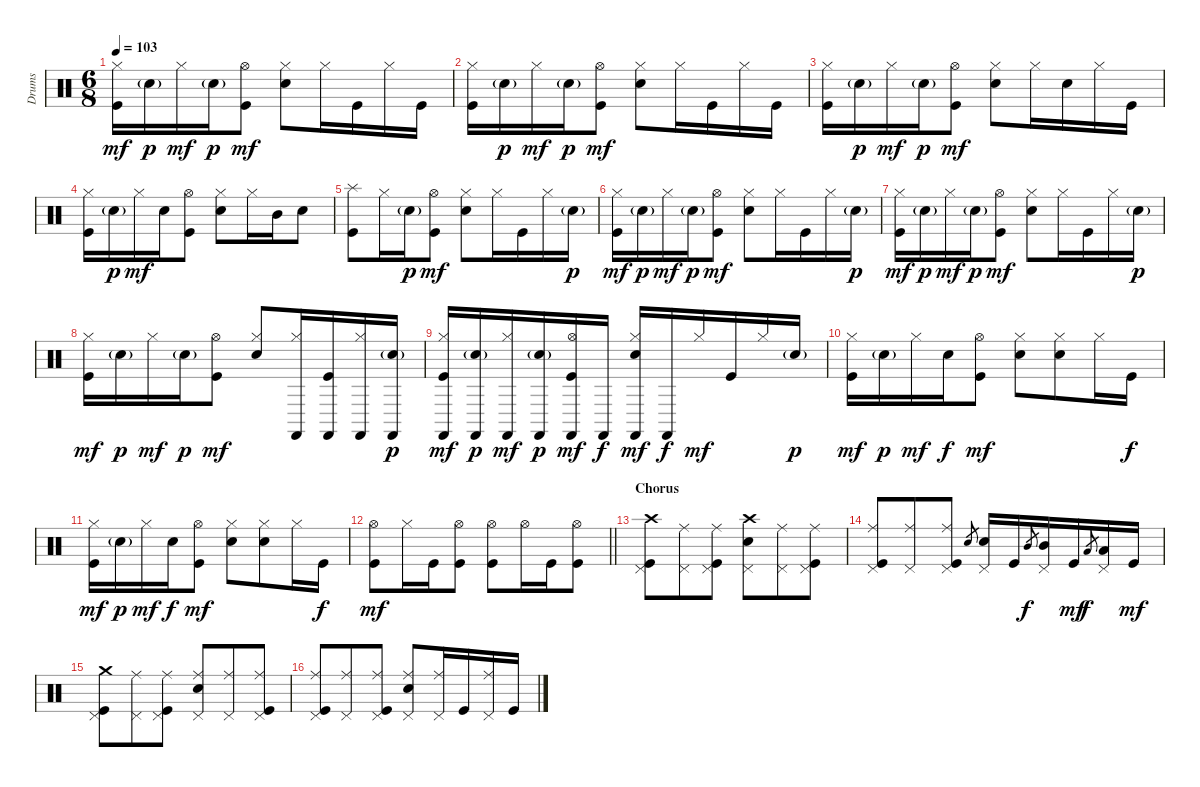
\track ("Drums" "Drums") {instrument percussion}
\staff {score}
\articulation defaults
\ts (6 8)
\tempo 103
\clef neutral
\ks c
("Hi-Hat (closed)" "Kick (hit)").16{dy mf} "Snare (hit) 2"{g}.16{dy p} "Hi-Hat (closed)".16{dy mf} "Snare (hit) 2"{g}.16{dy p} ("Hi-Hat (open)" "Kick (hit)").8{dy mf} ("Hi-Hat (closed)" "Snare (hit) 2").8 "Hi-Hat (closed)".16 "Kick (hit)".16 "Hi-Hat (closed)".16 "Kick (hit)".16 |
("Hi-Hat (closed)" "Kick (hit)").16 "Snare (hit) 2"{g}.16{dy p} "Hi-Hat (closed)".16{dy mf} "Snare (hit) 2"{g}.16{dy p} ("Hi-Hat (open)" "Kick (hit)").8{dy mf} ("Hi-Hat (closed)" "Snare (hit) 2").8 "Hi-Hat (closed)".16 "Kick (hit)".16 "Hi-Hat (closed)".16 "Kick (hit)".16 |
("Hi-Hat (closed)" "Kick (hit)").16 "Snare (hit) 2"{g}.16{dy p} "Hi-Hat (closed)".16{dy mf} "Snare (hit) 2"{g}.16{dy p} ("Hi-Hat (open)" "Kick (hit)").8{dy mf} ("Hi-Hat (closed)" "Snare (hit) 2").8 "Hi-Hat (closed)".16 "Snare (hit) 2".16 "Hi-Hat (closed)".16 "Kick (hit)".16 |
("Hi-Hat (closed)" "Kick (hit)").16 "Snare (hit) 2"{g}.16{dy p} "Hi-Hat (closed)".16{dy mf} "Snare (hit) 2".16 ("Hi-Hat (open)" "Kick (hit)").8 ("Hi-Hat (closed)" "Snare (hit) 2").8 "Hi-Hat (closed)".16 "Mid Tom (hit)".16 "Snare (hit) 2".8 |
("Splash (hit)" "Kick (hit)").8 "Hi-Hat (closed)".16 "Snare (hit) 2"{g}.16{dy p} ("Hi-Hat (open)" "Kick (hit)").8{dy mf} ("Hi-Hat (closed)" "Snare (hit) 2").8 "Hi-Hat (closed)".16 "Kick (hit)".16 "Hi-Hat (closed)".16 "Snare (hit) 2"{g}.16{dy p} |
("Hi-Hat (closed)" "Kick (hit)").16{dy mf} "Snare (hit) 2"{g}.16{dy p} "Hi-Hat (closed)".16{dy mf} "Snare (hit) 2"{g}.16{dy p} ("Hi-Hat (open)" "Kick (hit)").8{dy mf} ("Hi-Hat (closed)" "Snare (hit) 2").8 "Hi-Hat (closed)".16 "Kick (hit)".16 "Hi-Hat (closed)".16 "Snare (hit) 2"{g}.16{dy p} |
("Hi-Hat (closed)" "Kick (hit)").16{dy mf} "Snare (hit) 2"{g}.16{dy p} "Hi-Hat (closed)".16{dy mf} "Snare (hit) 2"{g}.16{dy p} ("Hi-Hat (open)" "Kick (hit)").8{dy mf} ("Hi-Hat (closed)" "Snare (hit) 2").8 "Hi-Hat (closed)".16 "Kick (hit)".16 "Hi-Hat (closed)".16 "Snare (hit) 2"{g}.16{dy p} |
("Hi-Hat (closed)" "Kick (hit)").16{dy mf} "Snare (hit) 2"{g}.16{dy p} "Hi-Hat (closed)".16{dy mf} "Snare (hit) 2"{g}.16{dy p} ("Hi-Hat (open)" "Kick (hit)").8{dy mf} ("Hi-Hat (closed)" "Snare (hit) 2").8 ("Hi-Hat (closed)" "Castanets (hit)").16 ("Kick (hit)" "Castanets (hit)").16 ("Hi-Hat (closed)" "Castanets (hit)").16 ("Snare (hit) 2"{g} "Castanets (hit)").16{dy p} |
("Hi-Hat (closed)" "Kick (hit)" "Castanets (hit)").16{dy mf} ("Snare (hit) 2"{g} "Castanets (hit)").16{dy p} ("Hi-Hat (closed)" "Castanets (hit)").16{dy mf} ("Snare (hit) 2"{g} "Castanets (hit)").16{dy p} ("Hi-Hat (open)" "Kick (hit)" "Castanets (hit)").16{dy mf} "Castanets (hit)".16{dy f} ("Hi-Hat (closed)" "Snare (hit) 2" "Castanets (hit)").16{dy mf} "Castanets (hit)".16{dy f} "Hi-Hat (closed)".16{dy mf} "Kick (hit)".16 "Hi-Hat (closed)".16 "Snare (hit) 2"{g}.16{dy p} |
("Hi-Hat (closed)" "Kick (hit)").16{dy mf} "Snare (hit) 2"{g}.16{dy p} "Hi-Hat (closed)".16{dy mf} "Snare (hit) 2".16{dy f} ("Hi-Hat (open)" "Kick (hit)").8{dy mf} ("Hi-Hat (closed)" "Snare (hit) 2").8 ("Hi-Hat (closed)" "Snare (hit) 2").8 "Hi-Hat (closed)".16 "Kick (hit)".16{dy f} |
("Hi-Hat (closed)" "Kick (hit)").16{dy mf} "Snare (hit) 2"{g}.16{dy p} "Hi-Hat (closed)".16{dy mf} "Snare (hit) 2".16{dy f} ("Hi-Hat (open)" "Kick (hit)").8{dy mf} ("Hi-Hat (closed)" "Snare (hit) 2").8 ("Hi-Hat (closed)" "Snare (hit) 2").8 "Hi-Hat (closed)".16 "Kick (hit)".16{dy f} |
\barLineRight lightlight
("Hi-Hat (open)" "Kick (hit)").8{dy mf} "Hi-Hat (closed)".16 "Kick (hit)".16 ("Hi-Hat (open)" "Kick (hit)").8 ("Hi-Hat (open)" "Kick (hit)").8 "Hi-Hat (open)".16 "Kick (hit)".16 ("Hi-Hat (open)" "Kick (hit)").8 |
\section ("" "Chorus")
("Pedal Hi-Hat (hit)" "Crash high (hit)" "Kick (hit)").8 ("Pedal Hi-Hat (hit)" "Ride (middle)").8 ("Pedal Hi-Hat (hit)" "Ride (middle)" "Kick (hit)").8 ("Pedal Hi-Hat (hit)" "Crash high (hit)" "Snare (hit) 2").8 ("Pedal Hi-Hat (hit)" "Ride (middle)").8 ("Pedal Hi-Hat (hit)" "Ride (middle)" "Kick (hit)").8 |
("Pedal Hi-Hat (hit)" "Ride (middle)" "Kick (hit)").8 ("Pedal Hi-Hat (hit)" "Ride (middle)").8 ("Pedal Hi-Hat (hit)" "Ride (middle)" "Kick (hit)").8 "Snare (hit) 2".8{gr} ("Pedal Hi-Hat (hit)" "Snare (hit) 2").16 "Kick (hit)".16 "Mid Tom (hit)".8{gr dy f} ("Pedal Hi-Hat (hit)" "Mid Tom (hit)").16 "Kick (hit)".16{dy mf} "Low Tom (hit)".8{gr dy f} ("Pedal Hi-Hat (hit)" "Low Tom (hit)").16 "Kick (hit)".16{dy mf} |
("Pedal Hi-Hat (hit)" "Crash medium (hit)" "Kick (hit)").8 ("Pedal Hi-Hat (hit)" "Ride (middle)").8 ("Pedal Hi-Hat (hit)" "Ride (middle)" "Kick (hit)").8 ("Pedal Hi-Hat (hit)" "Ride (middle)" "Snare (hit) 2").8 ("Pedal Hi-Hat (hit)" "Ride (middle)").8 ("Pedal Hi-Hat (hit)" "Ride (middle)" "Kick (hit)").8 |
("Pedal Hi-Hat (hit)" "Ride (middle)" "Kick (hit)").8 ("Pedal Hi-Hat (hit)" "Ride (middle)").8 ("Pedal Hi-Hat (hit)" "Ride (middle)" "Kick (hit)").8 ("Pedal Hi-Hat (hit)" "Ride (middle)" "Snare (hit) 2").8 ("Pedal Hi-Hat (hit)" "Ride (middle)").16 "Kick (hit)".16 ("Pedal Hi-Hat (hit)" "Ride (middle)").16 "Kick (hit)".16
